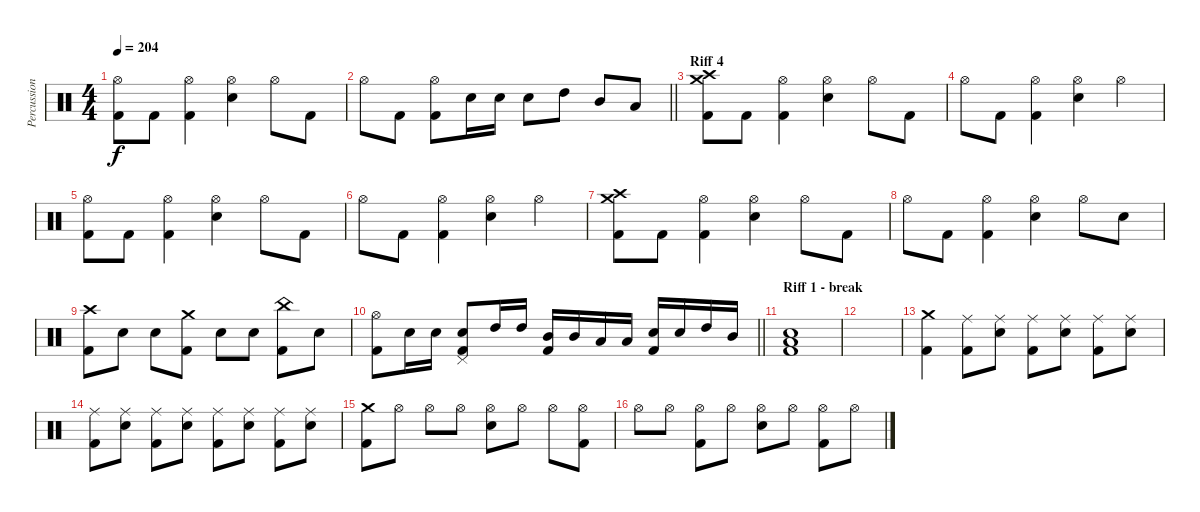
\track ("Percussions" "Percussion") {instrument percussion}
\staff {score}
\articulation defaults
\ts (4 4)
\tempo 204
\clef neutral
\ks c
("Hi-Hat (open)" "Kick (hit) 2").8{dy f} "Kick (hit) 2".8 ("Hi-Hat (open)" "Kick (hit) 2").4 ("Hi-Hat (open)" "Electric Snare (hit)").4 "Hi-Hat (open)".8 "Kick (hit) 2".8 |
\barLineRight lightlight "Hi-Hat (open)".8 "Kick (hit) 2".8
("Hi-Hat (open)" "Kick (hit) 2").8 "Electric Snare (hit)".16 "Electric Snare (hit)".16 "Electric Snare (hit)".8 "High Tom (hit)".8 "Mid Tom (hit)".8 "Low Tom (hit)".8 |
\section ("" "Riff 4")
("Crash medium (hit)" "Crash high (hit)" "Kick (hit) 2").8 "Kick (hit) 2".8 ("Hi-Hat (open)" "Kick (hit) 2").4 ("Hi-Hat (open)" "Electric Snare (hit)").4 "Hi-Hat (open)".8 "Kick (hit) 2".8 |
"Hi-Hat (open)".8 "Kick (hit) 2".8 ("Hi-Hat (open)" "Kick (hit) 2").4 ("Hi-Hat (open)" "Electric Snare (hit)").4 "Hi-Hat (open)".4 |
("Hi-Hat (open)" "Kick (hit) 2").8 "Kick (hit) 2".8 ("Hi-Hat (open)" "Kick (hit) 2").4 ("Hi-Hat (open)" "Electric Snare (hit)").4 "Hi-Hat (open)".8 "Kick (hit) 2".8 |
"Hi-Hat (open)".8 "Kick (hit) 2".8 ("Hi-Hat (open)" "Kick (hit) 2").4 ("Hi-Hat (open)" "Electric Snare (hit)").4 "Hi-Hat (open)".4 |
("Crash medium (hit)" "Crash high (hit)" "Kick (hit) 2").8 "Kick (hit) 2".8 ("Hi-Hat (open)" "Kick (hit) 2").4 ("Hi-Hat (open)" "Electric Snare (hit)").4 "Hi-Hat (open)".8 "Kick (hit) 2".8 |
"Hi-Hat (open)".8 "Kick (hit) 2".8 ("Hi-Hat (open)" "Kick (hit) 2").4 ("Hi-Hat (open)" "Electric Snare (hit)").4 "Hi-Hat (open)".8 "Electric Snare (hit)".8 |
("Crash high (hit)" "Kick (hit) 2").8 "Electric Snare (hit)".8 "Electric Snare (hit)".8 ("Crash medium (hit)" "Kick (hit) 2").8 "Electric Snare (hit)".8 "Electric Snare (hit)".8 ("China (hit)" "Kick (hit) 2").8 "Electric Snare (hit)".8 |
\barLineRight lightlight
("Hi-Hat (open)" "Kick (hit) 2").8 "Electric Snare (hit)".16 "Electric Snare (hit)".16 ("Pedal Hi-Hat (hit)" "Electric Snare (hit)" "Kick (hit) 2").8 "High Tom (hit)".16 "High Tom (hit)".16 ("Mid Tom (hit)" "Kick (hit) 2").16 "Mid Tom (hit)".16 "Low Tom (hit)".16 "Low Tom (hit)".16 ("Electric Snare (hit)" "Kick (hit) 2").16 "Electric Snare (hit)".16 "High Tom (hit)".16 "Mid Tom (hit)".16 |
\section ("" "Riff 1 - break")
("Low Floor Tom (hit)" "Electric Snare (hit)" "Kick (hit) 2").1 |
|
("Crash medium (hit)" "Kick (hit) 2").4 ("Ride (middle)" "Kick (hit) 2").8 ("Ride (middle)" "Electric Snare (hit)").8 ("Ride (middle)" "Kick (hit) 2").8 ("Ride (middle)" "Electric Snare (hit)").8 ("Ride (middle)" "Kick (hit) 2").8 ("Ride (middle)" "Electric Snare (hit)").8 |
("Ride (middle)" "Kick (hit) 2").8 ("Ride (middle)" "Electric Snare (hit)").8 ("Ride (middle)" "Kick (hit) 2").8 ("Ride (middle)" "Electric Snare (hit)").8 ("Ride (middle)" "Kick (hit) 2").8 ("Ride (middle)" "Electric Snare (hit)").8 ("Ride (middle)" "Kick (hit) 2").8 ("Ride (middle)" "Electric Snare (hit)").8 |
("Crash medium (hit)" "Kick (hit) 2").8 "Hi-Hat (open)".8 "Hi-Hat (open)".8 "Hi-Hat (open)".8 ("Hi-Hat (open)" "Electric Snare (hit)").8 "Hi-Hat (open)".8 "Hi-Hat (open)".8 ("Hi-Hat (open)" "Kick (hit) 2").8 |
"Hi-Hat (open)".8 "Hi-Hat (open)".8 ("Hi-Hat (open)" "Kick (hit) 2").8 "Hi-Hat (open)".8 ("Hi-Hat (open)" "Electric Snare (hit)").8 "Hi-Hat (open)".8 ("Hi-Hat (open)" "Kick (hit) 2").8 "Hi-Hat (open)".8
